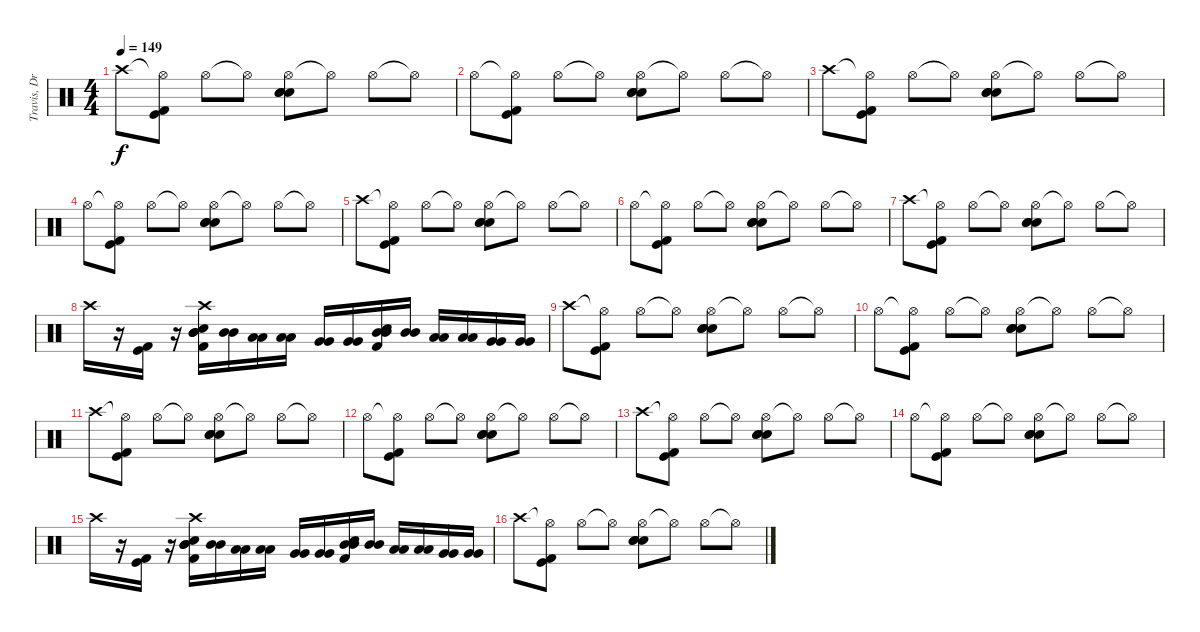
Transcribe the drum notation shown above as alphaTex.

\track ("Travis, Drums {Tabbed by Peter B.}" "Travis, Dr") {instrument percussion}
\staff {score}
\articulation defaults
\ts (4 4)
\tempo 149
\clef neutral
\ks c "Crash high (hit)".8{dy f}
("Hi-Hat (open)"{t} "Kick (hit)" "Kick (hit) 2").8 "Hi-Hat (open)".8 "Hi-Hat (open)"{t}.8 ("Hi-Hat (open)" "Electric Snare (hit)" "Electric Snare (hit)" "Snare (hit) 2").8 "Hi-Hat (open)"{t}.8 "Hi-Hat (open)".8 "Hi-Hat (open)"{t}.8 |
"Hi-Hat (open)".8 ("Hi-Hat (open)"{t} "Kick (hit)" "Kick (hit) 2").8 "Hi-Hat (open)".8 "Hi-Hat (open)"{t}.8 ("Hi-Hat (open)" "Electric Snare (hit)" "Electric Snare (hit)" "Snare (hit) 2").8 "Hi-Hat (open)"{t}.8 "Hi-Hat (open)".8 "Hi-Hat (open)"{t}.8 |
"Crash high (hit)".8 ("Hi-Hat (open)"{t} "Kick (hit)" "Kick (hit) 2").8 "Hi-Hat (open)".8 "Hi-Hat (open)"{t}.8 ("Hi-Hat (open)" "Electric Snare (hit)" "Electric Snare (hit)" "Snare (hit) 2").8 "Hi-Hat (open)"{t}.8 "Hi-Hat (open)".8 "Hi-Hat (open)"{t}.8 |
"Hi-Hat (open)".8 ("Hi-Hat (open)"{t} "Kick (hit)" "Kick (hit) 2").8 "Hi-Hat (open)".8 "Hi-Hat (open)"{t}.8 ("Hi-Hat (open)" "Electric Snare (hit)" "Electric Snare (hit)" "Snare (hit) 2").8 "Hi-Hat (open)"{t}.8 "Hi-Hat (open)".8 "Hi-Hat (open)"{t}.8 |
"Crash high (hit)".8 ("Hi-Hat (open)"{t} "Kick (hit)" "Kick (hit) 2").8 "Hi-Hat (open)".8 "Hi-Hat (open)"{t}.8 ("Hi-Hat (open)" "Electric Snare (hit)" "Electric Snare (hit)" "Snare (hit) 2").8 "Hi-Hat (open)"{t}.8 "Hi-Hat (open)".8 "Hi-Hat (open)"{t}.8 |
"Hi-Hat (open)".8 ("Hi-Hat (open)"{t} "Kick (hit)" "Kick (hit) 2").8 "Hi-Hat (open)".8 "Hi-Hat (open)"{t}.8 ("Hi-Hat (open)" "Electric Snare (hit)" "Electric Snare (hit)" "Snare (hit) 2").8 "Hi-Hat (open)"{t}.8 "Hi-Hat (open)".8 "Hi-Hat (open)"{t}.8 |
"Crash high (hit)".8 ("Hi-Hat (open)"{t} "Kick (hit)" "Kick (hit) 2").8 "Hi-Hat (open)".8 "Hi-Hat (open)"{t}.8 ("Hi-Hat (open)" "Electric Snare (hit)" "Electric Snare (hit)" "Snare (hit) 2").8 "Hi-Hat (open)"{t}.8 "Hi-Hat (open)".8 "Hi-Hat (open)"{t}.8 |
"Crash high (hit)".16 r.16 ("Kick (hit)" "Kick (hit) 2").16 r.16 ("Crash high (hit)" "Mid Tom (hit)" "Mid Tom (hit)" "Electric Snare (hit)" "Kick (hit) 2").16 ("Mid Tom (hit)" "Mid Tom (hit)").16 ("Low Tom (hit)" "Low Tom (hit)").16 ("Low Tom (hit)" "Low Tom (hit)").16 ("Very Low Tom (hit)" "Very Low Tom (hit)").16 ("Very Low Tom (hit)" "Very Low Tom (hit)").16 ("Mid Tom (hit)" "Mid Tom (hit)" "Electric Snare (hit)" "Kick (hit) 2").16 ("Mid Tom (hit)" "Mid Tom (hit)").16 ("Low Tom (hit)" "Low Tom (hit)").16 ("Low Tom (hit)" "Low Tom (hit)").16 ("Very Low Tom (hit)" "Very Low Tom (hit)").16 ("Very Low Tom (hit)" "Very Low Tom (hit)").16 |
"Crash high (hit)".8 ("Hi-Hat (open)"{t} "Kick (hit)" "Kick (hit) 2").8 "Hi-Hat (open)".8 "Hi-Hat (open)"{t}.8 ("Hi-Hat (open)" "Electric Snare (hit)" "Electric Snare (hit)" "Snare (hit) 2").8 "Hi-Hat (open)"{t}.8 "Hi-Hat (open)".8 "Hi-Hat (open)"{t}.8 |
"Hi-Hat (open)".8 ("Hi-Hat (open)"{t} "Kick (hit)" "Kick (hit) 2").8 "Hi-Hat (open)".8 "Hi-Hat (open)"{t}.8 ("Hi-Hat (open)" "Electric Snare (hit)" "Electric Snare (hit)" "Snare (hit) 2").8 "Hi-Hat (open)"{t}.8 "Hi-Hat (open)".8 "Hi-Hat (open)"{t}.8 |
"Crash high (hit)".8 ("Hi-Hat (open)"{t} "Kick (hit)" "Kick (hit) 2").8 "Hi-Hat (open)".8 "Hi-Hat (open)"{t}.8 ("Hi-Hat (open)" "Electric Snare (hit)" "Electric Snare (hit)" "Snare (hit) 2").8 "Hi-Hat (open)"{t}.8 "Hi-Hat (open)".8 "Hi-Hat (open)"{t}.8 |
"Hi-Hat (open)".8 ("Hi-Hat (open)"{t} "Kick (hit)" "Kick (hit) 2").8 "Hi-Hat (open)".8 "Hi-Hat (open)"{t}.8 ("Hi-Hat (open)" "Electric Snare (hit)" "Electric Snare (hit)" "Snare (hit) 2").8 "Hi-Hat (open)"{t}.8 "Hi-Hat (open)".8 "Hi-Hat (open)"{t}.8 |
"Crash high (hit)".8 ("Hi-Hat (open)"{t} "Kick (hit)" "Kick (hit) 2").8 "Hi-Hat (open)".8 "Hi-Hat (open)"{t}.8 ("Hi-Hat (open)" "Electric Snare (hit)" "Electric Snare (hit)" "Snare (hit) 2").8 "Hi-Hat (open)"{t}.8 "Hi-Hat (open)".8 "Hi-Hat (open)"{t}.8 |
"Hi-Hat (open)".8 ("Hi-Hat (open)"{t} "Kick (hit)" "Kick (hit) 2").8 "Hi-Hat (open)".8 "Hi-Hat (open)"{t}.8 ("Hi-Hat (open)" "Electric Snare (hit)" "Electric Snare (hit)" "Snare (hit) 2").8 "Hi-Hat (open)"{t}.8 "Hi-Hat (open)".8 "Hi-Hat (open)"{t}.8 |
"Crash high (hit)".16 r.16 ("Kick (hit)" "Kick (hit) 2").16 r.16 ("Crash high (hit)" "Mid Tom (hit)" "Mid Tom (hit)" "Electric Snare (hit)" "Kick (hit) 2").16 ("Mid Tom (hit)" "Mid Tom (hit)").16 ("Low Tom (hit)" "Low Tom (hit)").16 ("Low Tom (hit)" "Low Tom (hit)").16 ("Very Low Tom (hit)" "Very Low Tom (hit)").16 ("Very Low Tom (hit)" "Very Low Tom (hit)").16 ("Mid Tom (hit)" "Mid Tom (hit)" "Electric Snare (hit)" "Kick (hit) 2").16 ("Mid Tom (hit)" "Mid Tom (hit)").16 ("Low Tom (hit)" "Low Tom (hit)").16 ("Low Tom (hit)" "Low Tom (hit)").16 ("Very Low Tom (hit)" "Very Low Tom (hit)").16 ("Very Low Tom (hit)" "Very Low Tom (hit)").16 |
"Crash high (hit)".8 ("Hi-Hat (open)"{t} "Kick (hit)" "Kick (hit) 2").8 "Hi-Hat (open)".8 "Hi-Hat (open)"{t}.8 ("Hi-Hat (open)" "Electric Snare (hit)" "Electric Snare (hit)" "Snare (hit) 2").8 "Hi-Hat (open)"{t}.8 "Hi-Hat (open)".8 "Hi-Hat (open)"{t}.8
